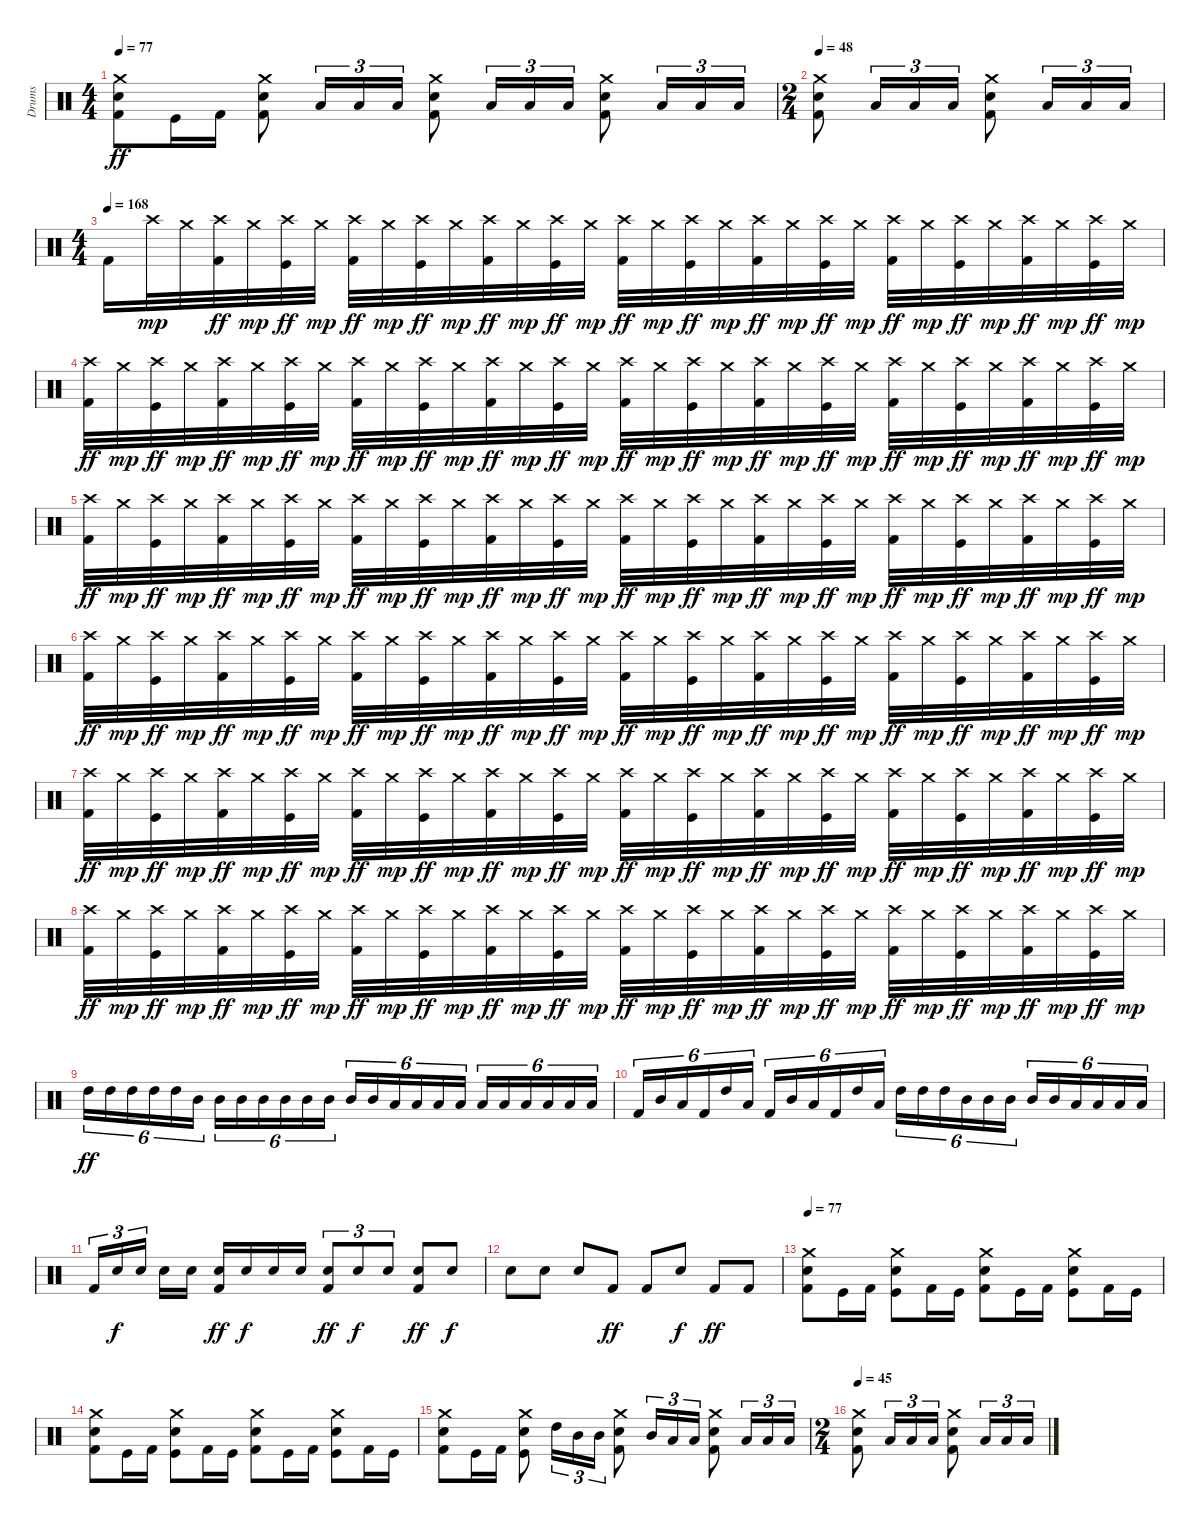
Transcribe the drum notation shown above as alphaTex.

\track ("Drums" "Drums") {instrument percussion}
\staff {score}
\articulation defaults
\ts (4 4)
\tempo 77
\clef neutral
\ks c
("Crash medium (hit)" "Electric Snare (hit)" "Kick (hit) 2").8{dy ff} "Kick (hit)".16 "Kick (hit) 2".16 ("Crash medium (hit)" "Electric Snare (hit)" "Kick (hit) 2").8 "Low Tom (hit)".16{tu (3 2)} "Low Tom (hit)".16{tu (3 2)} "Low Tom (hit)".16{tu (3 2)} ("Crash medium (hit)" "Electric Snare (hit)" "Kick (hit) 2").8 "Low Tom (hit)".16{tu (3 2)} "Low Tom (hit)".16{tu (3 2)} "Low Tom (hit)".16{tu (3 2)} ("Crash medium (hit)" "Electric Snare (hit)" "Kick (hit) 2").8 "Low Tom (hit)".16{tu (3 2)} "Low Tom (hit)".16{tu (3 2)} "Low Tom (hit)".16{tu (3 2)} |
\ts (2 4)
\tempo 48
("Crash medium (hit)" "Electric Snare (hit)" "Kick (hit) 2").8 "Low Tom (hit)".16{tu (3 2)} "Low Tom (hit)".16{tu (3 2)} "Low Tom (hit)".16{tu (3 2)} ("Crash medium (hit)" "Electric Snare (hit)" "Kick (hit) 2").8 "Low Tom (hit)".16{tu (3 2)} "Low Tom (hit)".16{tu (3 2)} "Low Tom (hit)".16{tu (3 2)} |
\ts (4 4)
\tempo (168)
"Kick (hit) 2".16 "Crash high (hit)".32{dy mp} "Crash medium (hit)".32 ("Crash high (hit)" "Kick (hit) 2").32{dy ff} "Crash medium (hit)".32{dy mp} ("Crash high (hit)" "Kick (hit)").32{dy ff} "Crash medium (hit)".32{dy mp} ("Crash high (hit)" "Kick (hit) 2").32{dy ff} "Crash medium (hit)".32{dy mp} ("Crash high (hit)" "Kick (hit)").32{dy ff} "Crash medium (hit)".32{dy mp} ("Crash high (hit)" "Kick (hit) 2").32{dy ff} "Crash medium (hit)".32{dy mp} ("Crash high (hit)" "Kick (hit)").32{dy ff} "Crash medium (hit)".32{dy mp} ("Crash high (hit)" "Kick (hit) 2").32{dy ff} "Crash medium (hit)".32{dy mp} ("Crash high (hit)" "Kick (hit)").32{dy ff} "Crash medium (hit)".32{dy mp} ("Crash high (hit)" "Kick (hit) 2").32{dy ff} "Crash medium (hit)".32{dy mp} ("Crash high (hit)" "Kick (hit)").32{dy ff} "Crash medium (hit)".32{dy mp} ("Crash high (hit)" "Kick (hit) 2").32{dy ff} "Crash medium (hit)".32{dy mp} ("Crash high (hit)" "Kick (hit)").32{dy ff} "Crash medium (hit)".32{dy mp} ("Crash high (hit)" "Kick (hit) 2").32{dy ff} "Crash medium (hit)".32{dy mp} ("Crash high (hit)" "Kick (hit)").32{dy ff} "Crash medium (hit)".32{dy mp} |
("Crash high (hit)" "Kick (hit) 2").32{dy ff} "Crash medium (hit)".32{dy mp} ("Crash high (hit)" "Kick (hit)").32{dy ff} "Crash medium (hit)".32{dy mp} ("Crash high (hit)" "Kick (hit) 2").32{dy ff} "Crash medium (hit)".32{dy mp} ("Crash high (hit)" "Kick (hit)").32{dy ff} "Crash medium (hit)".32{dy mp} ("Crash high (hit)" "Kick (hit) 2").32{dy ff} "Crash medium (hit)".32{dy mp} ("Crash high (hit)" "Kick (hit)").32{dy ff} "Crash medium (hit)".32{dy mp} ("Crash high (hit)" "Kick (hit) 2").32{dy ff} "Crash medium (hit)".32{dy mp} ("Crash high (hit)" "Kick (hit)").32{dy ff} "Crash medium (hit)".32{dy mp} ("Crash high (hit)" "Kick (hit) 2").32{dy ff} "Crash medium (hit)".32{dy mp} ("Crash high (hit)" "Kick (hit)").32{dy ff} "Crash medium (hit)".32{dy mp} ("Crash high (hit)" "Kick (hit) 2").32{dy ff} "Crash medium (hit)".32{dy mp} ("Crash high (hit)" "Kick (hit)").32{dy ff} "Crash medium (hit)".32{dy mp} ("Crash high (hit)" "Kick (hit) 2").32{dy ff} "Crash medium (hit)".32{dy mp} ("Crash high (hit)" "Kick (hit)").32{dy ff} "Crash medium (hit)".32{dy mp} ("Crash high (hit)" "Kick (hit) 2").32{dy ff} "Crash medium (hit)".32{dy mp} ("Crash high (hit)" "Kick (hit)").32{dy ff} "Crash medium (hit)".32{dy mp} |
("Crash high (hit)" "Kick (hit) 2").32{dy ff} "Crash medium (hit)".32{dy mp} ("Crash high (hit)" "Kick (hit)").32{dy ff} "Crash medium (hit)".32{dy mp} ("Crash high (hit)" "Kick (hit) 2").32{dy ff} "Crash medium (hit)".32{dy mp} ("Crash high (hit)" "Kick (hit)").32{dy ff} "Crash medium (hit)".32{dy mp} ("Crash high (hit)" "Kick (hit) 2").32{dy ff} "Crash medium (hit)".32{dy mp} ("Crash high (hit)" "Kick (hit)").32{dy ff} "Crash medium (hit)".32{dy mp} ("Crash high (hit)" "Kick (hit) 2").32{dy ff} "Crash medium (hit)".32{dy mp} ("Crash high (hit)" "Kick (hit)").32{dy ff} "Crash medium (hit)".32{dy mp} ("Crash high (hit)" "Kick (hit) 2").32{dy ff} "Crash medium (hit)".32{dy mp} ("Crash high (hit)" "Kick (hit)").32{dy ff} "Crash medium (hit)".32{dy mp} ("Crash high (hit)" "Kick (hit) 2").32{dy ff} "Crash medium (hit)".32{dy mp} ("Crash high (hit)" "Kick (hit)").32{dy ff} "Crash medium (hit)".32{dy mp} ("Crash high (hit)" "Kick (hit) 2").32{dy ff} "Crash medium (hit)".32{dy mp} ("Crash high (hit)" "Kick (hit)").32{dy ff} "Crash medium (hit)".32{dy mp} ("Crash high (hit)" "Kick (hit) 2").32{dy ff} "Crash medium (hit)".32{dy mp} ("Crash high (hit)" "Kick (hit)").32{dy ff} "Crash medium (hit)".32{dy mp} |
("Crash high (hit)" "Kick (hit) 2").32{dy ff} "Crash medium (hit)".32{dy mp} ("Crash high (hit)" "Kick (hit)").32{dy ff} "Crash medium (hit)".32{dy mp} ("Crash high (hit)" "Kick (hit) 2").32{dy ff} "Crash medium (hit)".32{dy mp} ("Crash high (hit)" "Kick (hit)").32{dy ff} "Crash medium (hit)".32{dy mp} ("Crash high (hit)" "Kick (hit) 2").32{dy ff} "Crash medium (hit)".32{dy mp} ("Crash high (hit)" "Kick (hit)").32{dy ff} "Crash medium (hit)".32{dy mp} ("Crash high (hit)" "Kick (hit) 2").32{dy ff} "Crash medium (hit)".32{dy mp} ("Crash high (hit)" "Kick (hit)").32{dy ff} "Crash medium (hit)".32{dy mp} ("Crash high (hit)" "Kick (hit) 2").32{dy ff} "Crash medium (hit)".32{dy mp} ("Crash high (hit)" "Kick (hit)").32{dy ff} "Crash medium (hit)".32{dy mp} ("Crash high (hit)" "Kick (hit) 2").32{dy ff} "Crash medium (hit)".32{dy mp} ("Crash high (hit)" "Kick (hit)").32{dy ff} "Crash medium (hit)".32{dy mp} ("Crash high (hit)" "Kick (hit) 2").32{dy ff} "Crash medium (hit)".32{dy mp} ("Crash high (hit)" "Kick (hit)").32{dy ff} "Crash medium (hit)".32{dy mp} ("Crash high (hit)" "Kick (hit) 2").32{dy ff} "Crash medium (hit)".32{dy mp} ("Crash high (hit)" "Kick (hit)").32{dy ff} "Crash medium (hit)".32{dy mp} |
("Crash high (hit)" "Kick (hit) 2").32{dy ff} "Crash medium (hit)".32{dy mp} ("Crash high (hit)" "Kick (hit)").32{dy ff} "Crash medium (hit)".32{dy mp} ("Crash high (hit)" "Kick (hit) 2").32{dy ff} "Crash medium (hit)".32{dy mp} ("Crash high (hit)" "Kick (hit)").32{dy ff} "Crash medium (hit)".32{dy mp} ("Crash high (hit)" "Kick (hit) 2").32{dy ff} "Crash medium (hit)".32{dy mp} ("Crash high (hit)" "Kick (hit)").32{dy ff} "Crash medium (hit)".32{dy mp} ("Crash high (hit)" "Kick (hit) 2").32{dy ff} "Crash medium (hit)".32{dy mp} ("Crash high (hit)" "Kick (hit)").32{dy ff} "Crash medium (hit)".32{dy mp} ("Crash high (hit)" "Kick (hit) 2").32{dy ff} "Crash medium (hit)".32{dy mp} ("Crash high (hit)" "Kick (hit)").32{dy ff} "Crash medium (hit)".32{dy mp} ("Crash high (hit)" "Kick (hit) 2").32{dy ff} "Crash medium (hit)".32{dy mp} ("Crash high (hit)" "Kick (hit)").32{dy ff} "Crash medium (hit)".32{dy mp} ("Crash high (hit)" "Kick (hit) 2").32{dy ff} "Crash medium (hit)".32{dy mp} ("Crash high (hit)" "Kick (hit)").32{dy ff} "Crash medium (hit)".32{dy mp} ("Crash high (hit)" "Kick (hit) 2").32{dy ff} "Crash medium (hit)".32{dy mp} ("Crash high (hit)" "Kick (hit)").32{dy ff} "Crash medium (hit)".32{dy mp} |
("Crash high (hit)" "Kick (hit) 2").32{dy ff} "Crash medium (hit)".32{dy mp} ("Crash high (hit)" "Kick (hit)").32{dy ff} "Crash medium (hit)".32{dy mp} ("Crash high (hit)" "Kick (hit) 2").32{dy ff} "Crash medium (hit)".32{dy mp} ("Crash high (hit)" "Kick (hit)").32{dy ff} "Crash medium (hit)".32{dy mp} ("Crash high (hit)" "Kick (hit) 2").32{dy ff} "Crash medium (hit)".32{dy mp} ("Crash high (hit)" "Kick (hit)").32{dy ff} "Crash medium (hit)".32{dy mp} ("Crash high (hit)" "Kick (hit) 2").32{dy ff} "Crash medium (hit)".32{dy mp} ("Crash high (hit)" "Kick (hit)").32{dy ff} "Crash medium (hit)".32{dy mp} ("Crash high (hit)" "Kick (hit) 2").32{dy ff} "Crash medium (hit)".32{dy mp} ("Crash high (hit)" "Kick (hit)").32{dy ff} "Crash medium (hit)".32{dy mp} ("Crash high (hit)" "Kick (hit) 2").32{dy ff} "Crash medium (hit)".32{dy mp} ("Crash high (hit)" "Kick (hit)").32{dy ff} "Crash medium (hit)".32{dy mp} ("Crash high (hit)" "Kick (hit) 2").32{dy ff} "Crash medium (hit)".32{dy mp} ("Crash high (hit)" "Kick (hit)").32{dy ff} "Crash medium (hit)".32{dy mp} ("Crash high (hit)" "Kick (hit) 2").32{dy ff} "Crash medium (hit)".32{dy mp} ("Crash high (hit)" "Kick (hit)").32{dy ff} "Crash medium (hit)".32{dy mp} |
"High Tom (hit)".16{tu (6 4) dy ff} "High Tom (hit)".16{tu (6 4)} "High Tom (hit)".16{tu (6 4)} "High Tom (hit)".16{tu (6 4)} "High Tom (hit)".16{tu (6 4)} "Mid Tom (hit)".16{tu (6 4)} "Mid Tom (hit)".16{tu (6 4)} "Mid Tom (hit)".16{tu (6 4)} "Mid Tom (hit)".16{tu (6 4)} "Mid Tom (hit)".16{tu (6 4)} "Mid Tom (hit)".16{tu (6 4)} "Mid Tom (hit)".16{tu (6 4)} "Mid Tom (hit)".16{tu (6 4)} "Mid Tom (hit)".16{tu (6 4)} "Low Tom (hit)".16{tu (6 4)} "Low Tom (hit)".16{tu (6 4)} "Low Tom (hit)".16{tu (6 4)} "Low Tom (hit)".16{tu (6 4)} "Low Tom (hit)".16{tu (6 4)} "Low Tom (hit)".16{tu (6 4)} "Low Tom (hit)".16{tu (6 4)} "Low Tom (hit)".16{tu (6 4)} "Low Tom (hit)".16{tu (6 4)} "Low Tom (hit)".16{tu (6 4)} |
"Kick (hit) 2".16{tu (6 4)} "Mid Tom (hit)".16{tu (6 4)} "Low Tom (hit)".16{tu (6 4)} "Kick (hit) 2".16{tu (6 4)} "High Tom (hit)".16{tu (6 4)} "Low Tom (hit)".16{tu (6 4)} "Kick (hit) 2".16{tu (6 4)} "Mid Tom (hit)".16{tu (6 4)} "Low Tom (hit)".16{tu (6 4)} "Kick (hit) 2".16{tu (6 4)} "High Tom (hit)".16{tu (6 4)} "Low Tom (hit)".16{tu (6 4)} "High Tom (hit)".16{tu (6 4)} "High Tom (hit)".16{tu (6 4)} "High Tom (hit)".16{tu (6 4)} "Mid Tom (hit)".16{tu (6 4)} "Mid Tom (hit)".16{tu (6 4)} "Mid Tom (hit)".16{tu (6 4)} "Mid Tom (hit)".16{tu (6 4)} "Mid Tom (hit)".16{tu (6 4)} "Low Tom (hit)".16{tu (6 4)} "Low Tom (hit)".16{tu (6 4)} "Low Tom (hit)".16{tu (6 4)} "Low Tom (hit)".16{tu (6 4)} |
"Kick (hit) 2".16{tu (3 2)} "Electric Snare (hit)".16{tu (3 2) dy f} "Electric Snare (hit)".16{tu (3 2)} "Electric Snare (hit)".16 "Electric Snare (hit)".16 ("Electric Snare (hit)" "Kick (hit) 2").16{dy ff} "Electric Snare (hit)".16{dy f} "Electric Snare (hit)".16 "Electric Snare (hit)".16 ("Electric Snare (hit)" "Kick (hit) 2").8{tu (3 2) dy ff} "Electric Snare (hit)".8{tu (3 2) dy f} "Electric Snare (hit)".8{tu (3 2)} ("Electric Snare (hit)" "Kick (hit) 2").8{dy ff} "Electric Snare (hit)".8{dy f} |
"Electric Snare (hit)".8 "Electric Snare (hit)".8 "Electric Snare (hit)".8 "Kick (hit) 2".8{dy ff} "Kick (hit) 2".8 "Electric Snare (hit)".8{dy f} "Kick (hit) 2".8{dy ff} "Kick (hit) 2".8 |
\tempo 77
("Crash medium (hit)" "Electric Snare (hit)" "Kick (hit) 2").8 "Kick (hit)".16 "Kick (hit) 2".16 ("Crash medium (hit)" "Electric Snare (hit)" "Kick (hit)").8 "Kick (hit) 2".16 "Kick (hit)".16 ("Crash medium (hit)" "Electric Snare (hit)" "Kick (hit) 2").8 "Kick (hit)".16 "Kick (hit) 2".16 ("Crash medium (hit)" "Electric Snare (hit)" "Kick (hit)").8 "Kick (hit) 2".16 "Kick (hit)".16 |
("Crash medium (hit)" "Electric Snare (hit)" "Kick (hit) 2").8 "Kick (hit)".16 "Kick (hit) 2".16 ("Crash medium (hit)" "Electric Snare (hit)" "Kick (hit)").8 "Kick (hit) 2".16 "Kick (hit)".16 ("Crash medium (hit)" "Electric Snare (hit)" "Kick (hit) 2").8 "Kick (hit)".16 "Kick (hit) 2".16 ("Crash medium (hit)" "Electric Snare (hit)" "Kick (hit)").8 "Kick (hit) 2".16 "Kick (hit)".16 |
("Crash medium (hit)" "Electric Snare (hit)" "Kick (hit) 2").8 "Kick (hit)".16 "Kick (hit) 2".16 ("Crash medium (hit)" "Electric Snare (hit)" "Kick (hit)").8 "High Tom (hit)".16{tu (3 2)} "Mid Tom (hit)".16{tu (3 2)} "Mid Tom (hit)".16{tu (3 2)} ("Crash medium (hit)" "Electric Snare (hit)" "Kick (hit) 2").8 "Mid Tom (hit)".16{tu (3 2)} "Low Tom (hit)".16{tu (3 2)} "Low Tom (hit)".16{tu (3 2)} ("Crash medium (hit)" "Electric Snare (hit)" "Kick (hit) 2").8 "Low Tom (hit)".16{tu (3 2)} "Low Tom (hit)".16{tu (3 2)} "Low Tom (hit)".16{tu (3 2)} |
\ts (2 4)
\tempo 45
("Crash medium (hit)" "Electric Snare (hit)" "Kick (hit) 2").8 "Low Tom (hit)".16{tu (3 2)} "Low Tom (hit)".16{tu (3 2)} "Low Tom (hit)".16{tu (3 2)} ("Crash medium (hit)" "Electric Snare (hit)" "Kick (hit) 2").8 "Low Tom (hit)".16{tu (3 2)} "Low Tom (hit)".16{tu (3 2)} "Low Tom (hit)".16{tu (3 2)}
